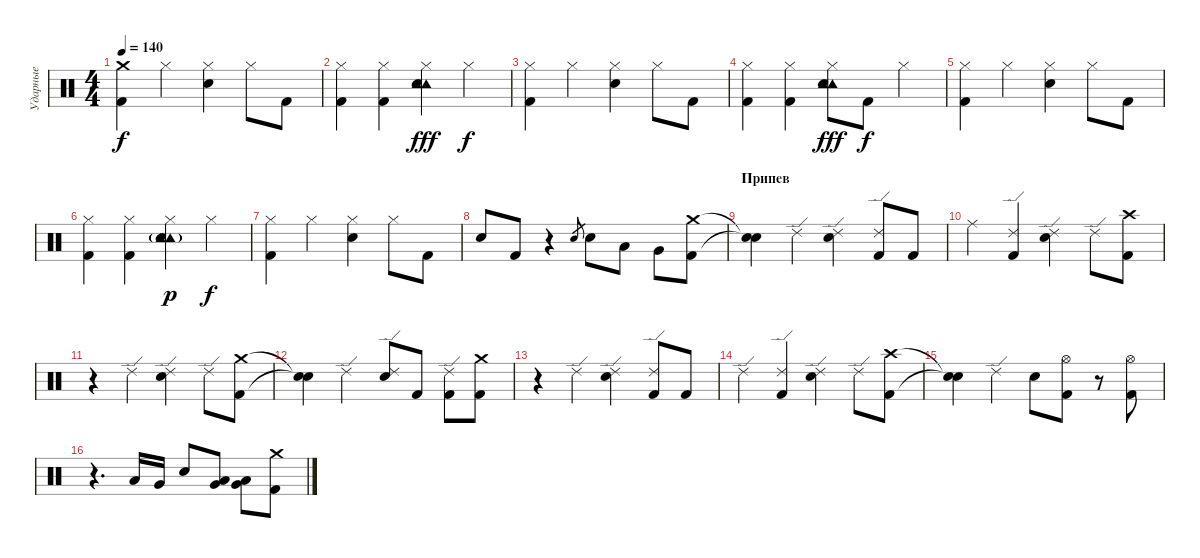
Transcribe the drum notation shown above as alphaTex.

\track ("Ударные" "Ударные") {instrument percussion}
\staff {score}
\articulation defaults
\ts (4 4)
\tempo 140
\clef neutral
\ks c
("Crash medium (hit)" "Kick (hit) 2").4{dy f} "Hi-Hat (closed)".4 ("Hi-Hat (closed)" "Snare (hit) 2").4 "Hi-Hat (closed)".8 "Kick (hit) 2".8 |
("Hi-Hat (closed)" "Kick (hit) 2").4 ("Kick (hit) 2" "Hi-Hat (closed)").4 ("Tambourine (hit)" "Tambourine (hit)" "Snare (hit) 2" "Hi-Hat (closed)").4{dy fff} "Hi-Hat (closed)".4{dy f} |
("Kick (hit) 2" "Hi-Hat (closed)").4 "Hi-Hat (closed)".4 ("Hi-Hat (closed)" "Snare (hit) 2").4 "Hi-Hat (closed)".8 "Kick (hit) 2".8 |
("Hi-Hat (closed)" "Kick (hit) 2").4 ("Kick (hit) 2" "Hi-Hat (closed)").4 ("Tambourine (hit)" "Tambourine (hit)" "Snare (hit) 2" "Hi-Hat (closed)").8{dy fff} "Kick (hit) 2".8{dy f} "Hi-Hat (closed)".4 |
("Kick (hit) 2" "Hi-Hat (closed)").4 "Hi-Hat (closed)".4 ("Hi-Hat (closed)" "Snare (hit) 2").4 "Hi-Hat (closed)".8 "Kick (hit) 2".8 |
("Hi-Hat (closed)" "Kick (hit) 2").4 ("Kick (hit) 2" "Hi-Hat (closed)").4 ("Tambourine (hit)"{g} "Snare (hit) 2" "Tambourine (hit)"{g} "Hi-Hat (closed)").4{dy p} "Hi-Hat (closed)".4{dy f} |
("Hi-Hat (closed)" "Kick (hit) 2").4 "Hi-Hat (closed)".4 ("Snare (hit) 2" "Hi-Hat (closed)").4 "Hi-Hat (closed)".8 "Kick (hit) 2".8 |
"Snare (hit) 2".8 "Kick (hit) 2".8 r.4 "Snare (hit) 2".8{gr} "Snare (hit) 2".8 "Low Tom (hit)".8 "Very Low Tom (hit)".8 ("Crash medium (hit)" "Kick (hit) 2").8 |
\section ("" "Припев")
("Snare (hit)"{t} "Snare (hit)"{t}).4 "Ride (edge) 2".4 ("Snare (hit) 2" "Ride (edge) 2").4 ("Kick (hit) 2" "Ride (edge) 2").8 "Kick (hit) 2".8 |
"Ride (middle)".4 ("Kick (hit) 2" "Ride (edge) 2").4 ("Snare (hit) 2" "Ride (edge) 2").4 "Ride (edge) 2".8 ("Crash high (hit)" "Kick (hit) 2").8 |
r.4 "Ride (edge) 2".4 ("Snare (hit) 2" "Ride (edge) 2").4 "Ride (edge) 2".8 ("Crash medium (hit)" "Kick (hit) 2").8 |
("Snare (hit)"{t} "Snare (hit)"{t}).4 "Ride (edge) 2".4 ("Snare (hit) 2" "Ride (edge) 2").8 "Kick (hit) 2".8 ("Ride (edge) 2" "Kick (hit) 2").8 ("Crash medium (hit)" "Kick (hit) 2").8 |
r.4 "Ride (edge) 2".4 ("Snare (hit) 2" "Ride (edge) 2").4 ("Kick (hit) 2" "Ride (edge) 2").8 "Kick (hit) 2".8 |
"Ride (edge) 2".4 ("Kick (hit) 2" "Ride (edge) 2").4 ("Snare (hit) 2" "Ride (edge) 2").4 "Ride (edge) 2".8 ("Crash high (hit)" "Kick (hit) 2").8 |
("Snare (hit)"{t} "Snare (hit)"{t}).4 "Ride (edge) 2".4 "Snare (hit) 2".8 ("Hi-Hat (open)" "Kick (hit) 2").8 r.8 ("Hi-Hat (open)" "Kick (hit) 2").8 |
r.4{d} "Low Tom (hit)".16 "Very Low Tom (hit)".16 "Snare (hit) 2".8 ("Very Low Tom (hit)" "Low Tom (hit)").8 ("Very Low Tom (hit)" "Low Floor Tom (hit)").8 ("Crash medium (hit)" "Kick (hit) 2").8
